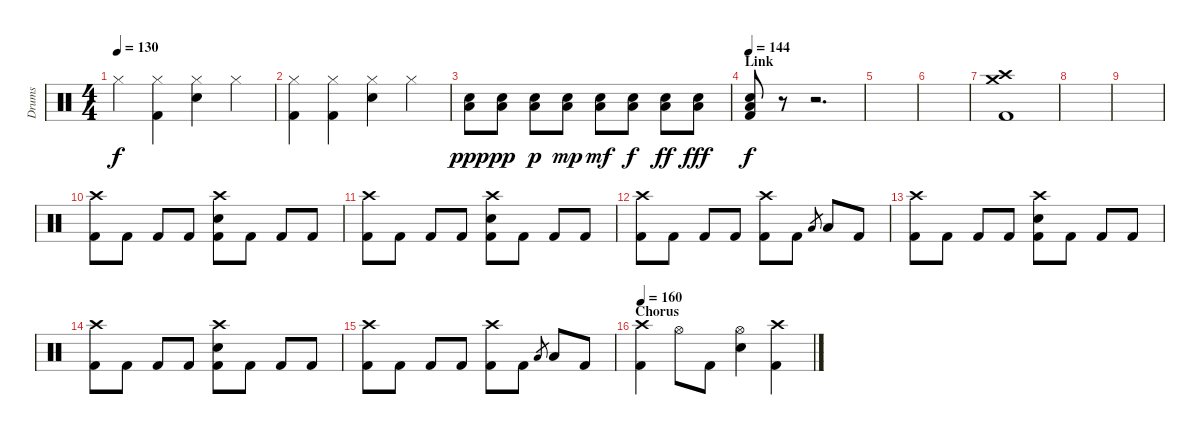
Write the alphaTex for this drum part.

\track ("Drums" "Drums") {instrument percussion}
\staff {score}
\articulation defaults
\ts (4 4)
\tempo 130
\clef neutral
\ks c "Hi-Hat (closed)".4{dy f}
("Hi-Hat (closed)" "Kick (hit) 2").4 ("Hi-Hat (closed)" "Electric Snare (hit)").4 "Hi-Hat (closed)".4 |
("Hi-Hat (closed)" "Kick (hit) 2").4 ("Hi-Hat (closed)" "Kick (hit) 2").4 ("Hi-Hat (closed)" "Electric Snare (hit)").4 "Hi-Hat (closed)".4 |
("Electric Snare (hit)" "Low Floor Tom (hit)").8{dy ppp} ("Electric Snare (hit)" "Low Floor Tom (hit)").8{dy pp} ("Electric Snare (hit)" "Low Floor Tom (hit)").8{dy p} ("Electric Snare (hit)" "Low Floor Tom (hit)").8{dy mp} ("Electric Snare (hit)" "Low Floor Tom (hit)").8{dy mf} ("Electric Snare (hit)" "Low Floor Tom (hit)").8{dy f} ("Electric Snare (hit)" "Low Floor Tom (hit)").8{dy ff} ("Electric Snare (hit)" "Low Floor Tom (hit)").8{dy fff} |
\section ("" "Link")
\tempo 144
("Electric Snare (hit)" "Low Floor Tom (hit)" "Kick (hit) 2").8{dy f} r.8 r.2{d} |
|
|
("Crash high (hit)" "Crash medium (hit)" "Kick (hit) 2").1 |
|
|
("Crash high (hit)" "Kick (hit) 2").8 "Kick (hit) 2".8 "Kick (hit) 2".8 "Kick (hit) 2".8 ("Crash high (hit)" "Electric Snare (hit)" "Kick (hit) 2").8 "Kick (hit) 2".8 "Kick (hit) 2".8 "Kick (hit) 2".8 |
("Crash high (hit)" "Kick (hit) 2").8 "Kick (hit) 2".8 "Kick (hit) 2".8 "Kick (hit) 2".8 ("Crash high (hit)" "Electric Snare (hit)" "Kick (hit) 2").8 "Kick (hit) 2".8 "Kick (hit) 2".8 "Kick (hit) 2".8 |
("Crash high (hit)" "Kick (hit) 2").8 "Kick (hit) 2".8 "Kick (hit) 2".8 "Kick (hit) 2".8 ("Crash high (hit)" "Kick (hit) 2").8 "Kick (hit) 2".8 "Low Tom (hit)".8{gr} "Low Tom (hit)".8 "Kick (hit) 2".8 |
("Crash high (hit)" "Kick (hit) 2").8 "Kick (hit) 2".8 "Kick (hit) 2".8 "Kick (hit) 2".8 ("Crash high (hit)" "Electric Snare (hit)" "Kick (hit) 2").8 "Kick (hit) 2".8 "Kick (hit) 2".8 "Kick (hit) 2".8 |
("Crash high (hit)" "Kick (hit) 2").8 "Kick (hit) 2".8 "Kick (hit) 2".8 "Kick (hit) 2".8 ("Crash high (hit)" "Electric Snare (hit)" "Kick (hit) 2").8 "Kick (hit) 2".8 "Kick (hit) 2".8 "Kick (hit) 2".8 |
("Crash high (hit)" "Kick (hit) 2").8 "Kick (hit) 2".8 "Kick (hit) 2".8 "Kick (hit) 2".8 ("Crash high (hit)" "Kick (hit) 2").8 "Kick (hit) 2".8 "Low Tom (hit)".8{gr} "Low Tom (hit)".8 "Kick (hit) 2".8 |
\section ("" "Chorus")
\tempo 160
("Crash high (hit)" "Kick (hit) 2").4 "Hi-Hat (open)".8 "Kick (hit) 2".8 ("Hi-Hat (open)" "Electric Snare (hit)").4 ("Crash high (hit)" "Kick (hit) 2").4
